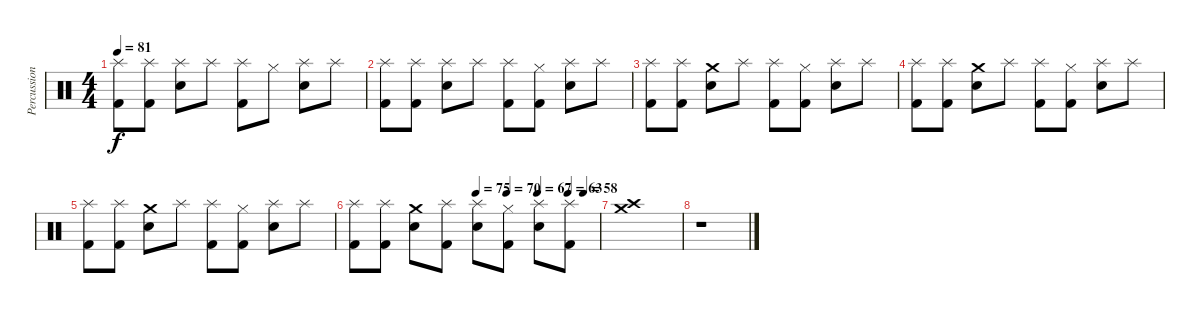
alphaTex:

\track ("Percussion" "Percussion") {instrument percussion}
\staff {score}
\articulation defaults
\ts (4 4)
\tempo 81
\clef neutral
\ks c
("Splash (hit)" "Kick (hit) 2").8{dy f} ("Splash (hit)" "Kick (hit) 2").8 ("Splash (hit)" "Snare (hit) 2").8 "Splash (hit)".8 ("Splash (hit)" "Kick (hit) 2").8 "Hi-Hat (closed)".8 ("Splash (hit)" "Snare (hit) 2").8 "Splash (hit)".8 |
("Splash (hit)" "Kick (hit) 2").8 ("Splash (hit)" "Kick (hit) 2").8 ("Splash (hit)" "Snare (hit) 2").8 "Splash (hit)".8 ("Splash (hit)" "Kick (hit) 2").8 ("Hi-Hat (closed)" "Kick (hit) 2").8 ("Splash (hit)" "Snare (hit) 2").8 "Splash (hit)".8 |
("Splash (hit)" "Kick (hit) 2").8 ("Splash (hit)" "Kick (hit) 2").8 ("Crash medium (hit)" "Snare (hit) 2").8 "Splash (hit)".8 ("Splash (hit)" "Kick (hit) 2").8 ("Hi-Hat (closed)" "Kick (hit) 2").8 ("Splash (hit)" "Snare (hit) 2").8 "Splash (hit)".8 |
("Splash (hit)" "Kick (hit) 2").8 ("Splash (hit)" "Kick (hit) 2").8 ("Crash medium (hit)" "Snare (hit) 2").8 "Splash (hit)".8 ("Splash (hit)" "Kick (hit) 2").8 ("Hi-Hat (closed)" "Kick (hit) 2").8 ("Splash (hit)" "Snare (hit) 2").8 "Splash (hit)".8 |
("Splash (hit)" "Kick (hit) 2").8 ("Splash (hit)" "Kick (hit) 2").8 ("Crash medium (hit)" "Snare (hit) 2").8 "Splash (hit)".8 ("Splash (hit)" "Kick (hit) 2").8 ("Hi-Hat (closed)" "Kick (hit) 2").8 ("Splash (hit)" "Snare (hit) 2").8 "Splash (hit)".8 |
\tempo (75 0.5)
\tempo (70 0.625)
\tempo (67 0.75)
\tempo (63 0.875)
\tempo (58 0.9375)
("Splash (hit)" "Kick (hit) 2").8 ("Splash (hit)" "Kick (hit) 2").8 ("Crash medium (hit)" "Snare (hit) 2").8 ("Splash (hit)" "Kick (hit) 2").8 ("Splash (hit)" "Snare (hit) 2").8 ("Hi-Hat (closed)" "Kick (hit) 2").8 ("Splash (hit)" "Snare (hit) 2").8 ("Splash (hit)" "Kick (hit) 2").8 |
("Crash high (hit)" "Crash medium (hit)").1 |
r.1
